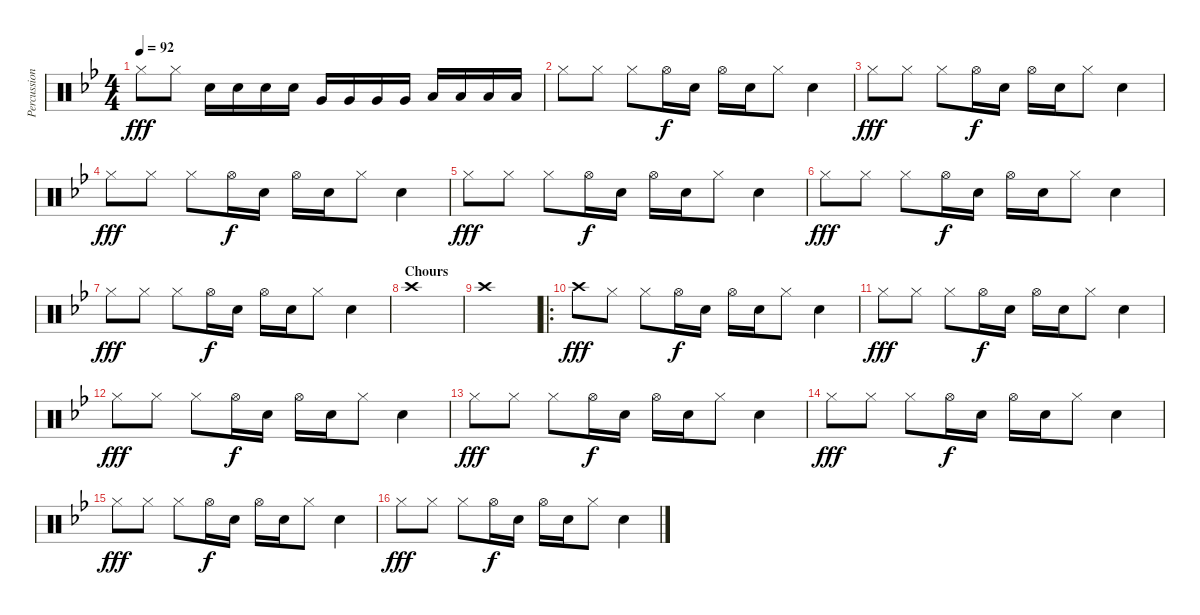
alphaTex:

\track ("Percussion" "Percussion") {instrument percussion}
\staff {score}
\articulation defaults
\ts (4 4)
\tempo 92
\clef neutral
\ks bb "Hi-Hat (closed)".8{dy fff} "Hi-Hat (closed)".8 "Snare (hit) 2".16 "Snare (hit) 2".16 "Snare (hit) 2".16 "Snare (hit) 2".16 "Very Low Tom (hit)".16 "Very Low Tom (hit)".16 "Very Low Tom (hit)".16 "Very Low Tom (hit)".16 "Low Floor Tom (hit)".16 "Low Floor Tom (hit)".16 "Low Floor Tom (hit)".16 "Low Floor Tom (hit)".16
|
"Hi-Hat (closed)".8 "Hi-Hat (closed)".8 "Hi-Hat (closed)".8 "Hi-Hat (open)".16{dy f} "Snare (hit) 2".16 "Hi-Hat (open)".16 "Snare (hit) 2".16 "Hi-Hat (closed)".8 "Snare (hit) 2".4 |
"Hi-Hat (closed)".8{dy fff} "Hi-Hat (closed)".8 "Hi-Hat (closed)".8 "Hi-Hat (open)".16{dy f} "Snare (hit) 2".16 "Hi-Hat (open)".16 "Snare (hit) 2".16 "Hi-Hat (closed)".8 "Snare (hit) 2".4 |
"Hi-Hat (closed)".8{dy fff} "Hi-Hat (closed)".8 "Hi-Hat (closed)".8 "Hi-Hat (open)".16{dy f} "Snare (hit) 2".16 "Hi-Hat (open)".16 "Snare (hit) 2".16 "Hi-Hat (closed)".8 "Snare (hit) 2".4 |
"Hi-Hat (closed)".8{dy fff} "Hi-Hat (closed)".8 "Hi-Hat (closed)".8 "Hi-Hat (open)".16{dy f} "Snare (hit) 2".16 "Hi-Hat (open)".16 "Snare (hit) 2".16 "Hi-Hat (closed)".8 "Snare (hit) 2".4 |
"Hi-Hat (closed)".8{dy fff} "Hi-Hat (closed)".8 "Hi-Hat (closed)".8 "Hi-Hat (open)".16{dy f} "Snare (hit) 2".16 "Hi-Hat (open)".16 "Snare (hit) 2".16 "Hi-Hat (closed)".8 "Snare (hit) 2".4 |
"Hi-Hat (closed)".8{dy fff} "Hi-Hat (closed)".8 "Hi-Hat (closed)".8 "Hi-Hat (open)".16{dy f} "Snare (hit) 2".16 "Hi-Hat (open)".16 "Snare (hit) 2".16 "Hi-Hat (closed)".8 "Snare (hit) 2".4 |
\section ("" "Chours")
"Crash high (hit)".1 |
"Crash high (hit)".1 |
\ro "Crash high (hit)".8{dy fff} "Hi-Hat (closed)".8 "Hi-Hat (closed)".8 "Hi-Hat (open)".16{dy f} "Snare (hit) 2".16 "Hi-Hat (open)".16 "Snare (hit) 2".16 "Hi-Hat (closed)".8 "Snare (hit) 2".4
|
"Hi-Hat (closed)".8{dy fff} "Hi-Hat (closed)".8 "Hi-Hat (closed)".8 "Hi-Hat (open)".16{dy f} "Snare (hit) 2".16 "Hi-Hat (open)".16 "Snare (hit) 2".16 "Hi-Hat (closed)".8 "Snare (hit) 2".4 |
"Hi-Hat (closed)".8{dy fff} "Hi-Hat (closed)".8 "Hi-Hat (closed)".8 "Hi-Hat (open)".16{dy f} "Snare (hit) 2".16 "Hi-Hat (open)".16 "Snare (hit) 2".16 "Hi-Hat (closed)".8 "Snare (hit) 2".4 |
"Hi-Hat (closed)".8{dy fff} "Hi-Hat (closed)".8 "Hi-Hat (closed)".8 "Hi-Hat (open)".16{dy f} "Snare (hit) 2".16 "Hi-Hat (open)".16 "Snare (hit) 2".16 "Hi-Hat (closed)".8 "Snare (hit) 2".4 |
"Hi-Hat (closed)".8{dy fff} "Hi-Hat (closed)".8 "Hi-Hat (closed)".8 "Hi-Hat (open)".16{dy f} "Snare (hit) 2".16 "Hi-Hat (open)".16 "Snare (hit) 2".16 "Hi-Hat (closed)".8 "Snare (hit) 2".4 |
"Hi-Hat (closed)".8{dy fff} "Hi-Hat (closed)".8 "Hi-Hat (closed)".8 "Hi-Hat (open)".16{dy f} "Snare (hit) 2".16 "Hi-Hat (open)".16 "Snare (hit) 2".16 "Hi-Hat (closed)".8 "Snare (hit) 2".4 |
"Hi-Hat (closed)".8{dy fff} "Hi-Hat (closed)".8 "Hi-Hat (closed)".8 "Hi-Hat (open)".16{dy f} "Snare (hit) 2".16 "Hi-Hat (open)".16 "Snare (hit) 2".16 "Hi-Hat (closed)".8 "Snare (hit) 2".4
